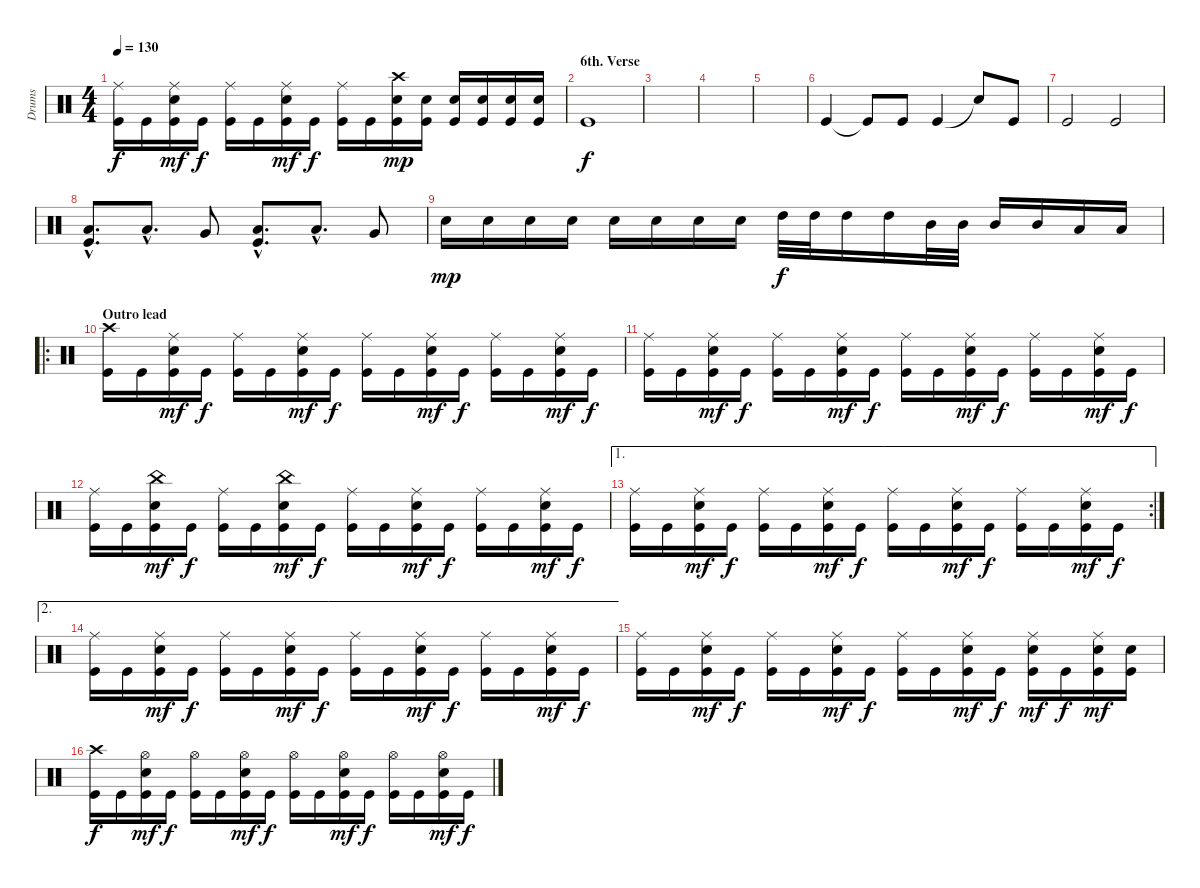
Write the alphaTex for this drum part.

\track ("Drums" "Drums") {instrument percussion}
\staff {score}
\articulation defaults
\ts (4 4)
\tempo 130
\clef neutral
\ks c
("Ride (middle)" "Kick (hit)").16{dy f} "Kick (hit)".16 ("Ride (middle)" "Snare (hit) 2" "Kick (hit)").16{dy mf} "Kick (hit)".16{dy f} ("Ride (middle)" "Kick (hit)").16 "Kick (hit)".16 ("Ride (middle)" "Snare (hit) 2" "Kick (hit)").16{dy mf} "Kick (hit)".16{dy f} ("Ride (middle)" "Kick (hit)").16 "Kick (hit)".16 ("Crash high (hit)" "Snare (hit) 2" "Kick (hit)").16{dy mp} ("Snare (hit) 2" "Kick (hit)").16 ("Snare (hit) 2" "Kick (hit)").16 ("Snare (hit) 2" "Kick (hit)").16 ("Snare (hit) 2" "Kick (hit)").16 ("Snare (hit) 2" "Kick (hit)").16 |
\section ("" "6th. Verse")
"Kick (hit)".1{dy f} |
|
|
|
"Kick (hit)".4 "Kick (hit)"{t}.8 "Kick (hit)".8 "Kick (hit)".4 "Snare (hit)"{t}.8 "Kick (hit)".8 |
"Kick (hit)".2 "Kick (hit)".2 |
("Low Tom (hit)"{hac} "Kick (hit)"{hac}).8{d} "Low Tom (hit)"{hac}.8{d} "Very Low Tom (hit)".8 ("Low Tom (hit)"{hac} "Kick (hit)"{hac}).8{d} "Low Tom (hit)"{hac}.8{d} "Very Low Tom (hit)".8 |
"Snare (hit) 2".16{dy mp} "Snare (hit) 2".16 "Snare (hit) 2".16 "Snare (hit) 2".16 "Snare (hit) 2".16 "Snare (hit) 2".16 "Snare (hit) 2".16 "Snare (hit) 2".16 "High Tom (hit)".32{dy f} "High Tom (hit)".32 "High Tom (hit)".16 "High Tom (hit)".16 "Mid Tom (hit)".32 "Mid Tom (hit)".32 "Mid Tom (hit)".16 "Mid Tom (hit)".16 "Low Tom (hit)".16 "Low Tom (hit)".16 |
\ro
\section ("" "Outro lead")
("Crash high (hit)" "Kick (hit)").16 "Kick (hit)".16 ("Ride (middle)" "Snare (hit) 2" "Kick (hit)").16{dy mf} "Kick (hit)".16{dy f} ("Ride (middle)" "Kick (hit)").16 "Kick (hit)".16 ("Ride (middle)" "Snare (hit) 2" "Kick (hit)").16{dy mf} "Kick (hit)".16{dy f} ("Ride (middle)" "Kick (hit)").16 "Kick (hit)".16 ("Ride (middle)" "Snare (hit) 2" "Kick (hit)").16{dy mf} "Kick (hit)".16{dy f} ("Ride (middle)" "Kick (hit)").16 "Kick (hit)".16 ("Ride (middle)" "Snare (hit) 2" "Kick (hit)").16{dy mf} "Kick (hit)".16{dy f} |
("Ride (middle)" "Kick (hit)").16 "Kick (hit)".16 ("Ride (middle)" "Snare (hit) 2" "Kick (hit)").16{dy mf} "Kick (hit)".16{dy f} ("Ride (middle)" "Kick (hit)").16 "Kick (hit)".16 ("Ride (middle)" "Snare (hit) 2" "Kick (hit)").16{dy mf} "Kick (hit)".16{dy f} ("Ride (middle)" "Kick (hit)").16 "Kick (hit)".16 ("Ride (middle)" "Snare (hit) 2" "Kick (hit)").16{dy mf} "Kick (hit)".16{dy f} ("Ride (middle)" "Kick (hit)").16 "Kick (hit)".16 ("Ride (middle)" "Snare (hit) 2" "Kick (hit)").16{dy mf} "Kick (hit)".16{dy f} |
("Ride (middle)" "Kick (hit)").16 "Kick (hit)".16 ("China (hit)" "Snare (hit) 2" "Kick (hit)").16{dy mf} "Kick (hit)".16{dy f} ("Ride (middle)" "Kick (hit)").16 "Kick (hit)".16 ("China (hit)" "Snare (hit) 2" "Kick (hit)").16{dy mf} "Kick (hit)".16{dy f} ("Ride (middle)" "Kick (hit)").16 "Kick (hit)".16 ("Ride (middle)" "Snare (hit) 2" "Kick (hit)").16{dy mf} "Kick (hit)".16{dy f} ("Ride (middle)" "Kick (hit)").16 "Kick (hit)".16 ("Ride (middle)" "Snare (hit) 2" "Kick (hit)").16{dy mf} "Kick (hit)".16{dy f} |
\ae 1
\rc 2
("Ride (middle)" "Kick (hit)").16 "Kick (hit)".16 ("Ride (middle)" "Snare (hit) 2" "Kick (hit)").16{dy mf} "Kick (hit)".16{dy f} ("Ride (middle)" "Kick (hit)").16 "Kick (hit)".16 ("Ride (middle)" "Snare (hit) 2" "Kick (hit)").16{dy mf} "Kick (hit)".16{dy f} ("Ride (middle)" "Kick (hit)").16 "Kick (hit)".16 ("Ride (middle)" "Snare (hit) 2" "Kick (hit)").16{dy mf} "Kick (hit)".16{dy f} ("Ride (middle)" "Kick (hit)").16 "Kick (hit)".16 ("Ride (middle)" "Snare (hit) 2" "Kick (hit)").16{dy mf} "Kick (hit)".16{dy f} |
\ae 2
("Ride (middle)" "Kick (hit)").16 "Kick (hit)".16 ("Ride (middle)" "Snare (hit) 2" "Kick (hit)").16{dy mf} "Kick (hit)".16{dy f} ("Ride (middle)" "Kick (hit)").16 "Kick (hit)".16 ("Ride (middle)" "Snare (hit) 2" "Kick (hit)").16{dy mf} "Kick (hit)".16{dy f} ("Ride (middle)" "Kick (hit)").16 "Kick (hit)".16 ("Ride (middle)" "Snare (hit) 2" "Kick (hit)").16{dy mf} "Kick (hit)".16{dy f} ("Ride (middle)" "Kick (hit)").16 "Kick (hit)".16 ("Ride (middle)" "Snare (hit) 2" "Kick (hit)").16{dy mf} "Kick (hit)".16{dy f} |
("Ride (middle)" "Kick (hit)").16 "Kick (hit)".16 ("Ride (middle)" "Snare (hit) 2" "Kick (hit)").16{dy mf} "Kick (hit)".16{dy f} ("Ride (middle)" "Kick (hit)").16 "Kick (hit)".16 ("Ride (middle)" "Snare (hit) 2" "Kick (hit)").16{dy mf} "Kick (hit)".16{dy f} ("Ride (middle)" "Kick (hit)").16 "Kick (hit)".16 ("Ride (middle)" "Snare (hit) 2" "Kick (hit)").16{dy mf} "Kick (hit)".16{dy f} ("Ride (middle)" "Snare (hit) 2" "Kick (hit)").16{dy mf} "Kick (hit)".16{dy f} ("Ride (middle)" "Snare (hit) 2" "Kick (hit)").16{dy mf} ("Snare (hit) 2" "Kick (hit)").16 |
("Crash high (hit)" "Kick (hit)").16{dy f} "Kick (hit)".16 ("Hi-Hat (open)" "Snare (hit) 2" "Kick (hit)").16{dy mf} "Kick (hit)".16{dy f} ("Hi-Hat (open)" "Kick (hit)").16 "Kick (hit)".16 ("Hi-Hat (open)" "Snare (hit) 2" "Kick (hit)").16{dy mf} "Kick (hit)".16{dy f} ("Hi-Hat (open)" "Kick (hit)").16 "Kick (hit)".16 ("Hi-Hat (open)" "Snare (hit) 2" "Kick (hit)").16{dy mf} "Kick (hit)".16{dy f} ("Hi-Hat (open)" "Kick (hit)").16 "Kick (hit)".16 ("Hi-Hat (open)" "Snare (hit) 2" "Kick (hit)").16{dy mf} "Kick (hit)".16{dy f}
